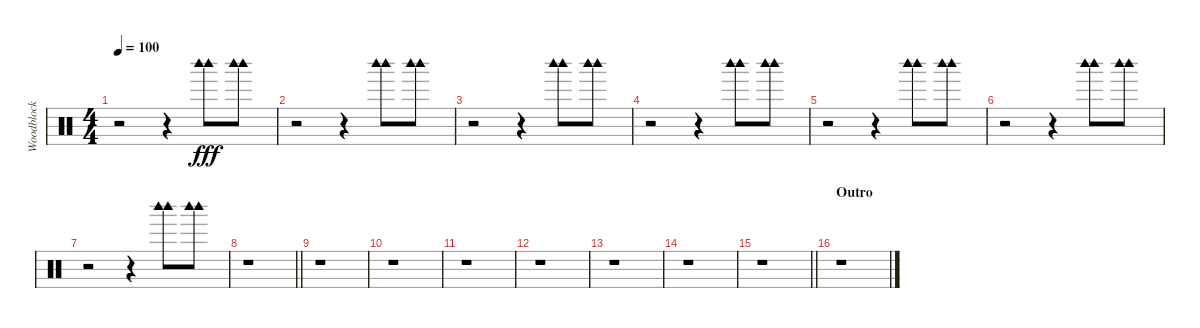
\track ("Woodblock" "Woodblock") {instrument percussion}
\staff {score}
\articulation defaults
\ts (4 4)
\tempo 100
\clef neutral
\ks c
r.2{dy fff} r.4 ("Woodblock high (hit)" "Woodblock high (hit)").8 ("Woodblock high (hit)" "Woodblock high (hit)").8 |
r.2 r.4 ("Woodblock high (hit)" "Woodblock high (hit)").8 ("Woodblock high (hit)" "Woodblock high (hit)").8 |
r.2 r.4 ("Woodblock high (hit)" "Woodblock high (hit)").8 ("Woodblock high (hit)" "Woodblock high (hit)").8 |
r.2 r.4 ("Woodblock high (hit)" "Woodblock high (hit)").8 ("Woodblock high (hit)" "Woodblock high (hit)").8 |
r.2 r.4 ("Woodblock high (hit)" "Woodblock high (hit)").8 ("Woodblock high (hit)" "Woodblock high (hit)").8 |
r.2 r.4 ("Woodblock high (hit)" "Woodblock high (hit)").8 ("Woodblock high (hit)" "Woodblock high (hit)").8 |
r.2 r.4 ("Woodblock high (hit)" "Woodblock high (hit)").8 ("Woodblock high (hit)" "Woodblock high (hit)").8 |
\barLineRight lightlight
r.1 |
r.1 |
r.1 |
r.1 |
r.1 |
r.1 |
r.1 |
\barLineRight lightlight
r.1 |
\section ("" "Outro")
r.1
